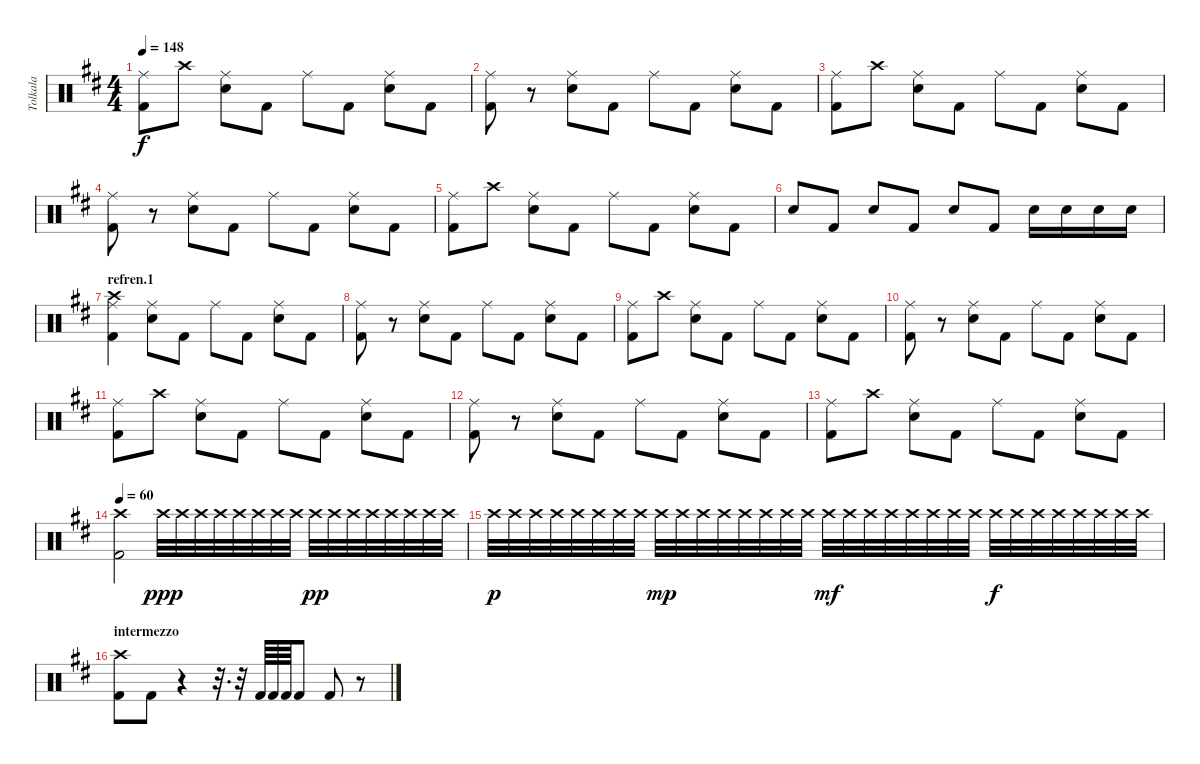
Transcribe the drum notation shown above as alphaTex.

\track ("Tolkala" "Tolkala") {instrument percussion}
\staff {score}
\articulation defaults
\ts (4 4)
\tempo 148
\clef neutral
\ks d
("Kick (hit) 2" "Ride (middle)").8{dy f} "Crash high (hit)".8 ("Snare (hit) 2" "Ride (middle)").8 "Kick (hit) 2".8 "Ride (middle)".8 "Kick (hit) 2".8 ("Snare (hit) 2" "Ride (middle)").8 "Kick (hit) 2".8 |
("Kick (hit) 2" "Ride (middle)").8 r.8 ("Snare (hit) 2" "Ride (middle)").8 "Kick (hit) 2".8 "Ride (middle)".8 "Kick (hit) 2".8 ("Snare (hit) 2" "Ride (middle)").8 "Kick (hit) 2".8 |
("Kick (hit) 2" "Ride (middle)").8 "Crash high (hit)".8 ("Snare (hit) 2" "Ride (middle)").8 "Kick (hit) 2".8 "Ride (middle)".8 "Kick (hit) 2".8 ("Snare (hit) 2" "Ride (middle)").8 "Kick (hit) 2".8 |
("Kick (hit) 2" "Ride (middle)").8 r.8 ("Snare (hit) 2" "Ride (middle)").8 "Kick (hit) 2".8 "Ride (middle)".8 "Kick (hit) 2".8 ("Snare (hit) 2" "Ride (middle)").8 "Kick (hit) 2".8 |
("Kick (hit) 2" "Ride (middle)").8 "Crash high (hit)".8 ("Snare (hit) 2" "Ride (middle)").8 "Kick (hit) 2".8 "Ride (middle)".8 "Kick (hit) 2".8 ("Snare (hit) 2" "Ride (middle)").8 "Kick (hit) 2".8 |
"Snare (hit) 2".8 "Kick (hit) 2".8 "Snare (hit) 2".8 "Kick (hit) 2".8 "Snare (hit) 2".8 "Kick (hit) 2".8 "Snare (hit) 2".16 "Snare (hit) 2".16 "Snare (hit) 2".16 "Snare (hit) 2".16 |
\section ("" "refren.1")
("Crash high (hit)" "Kick (hit) 2" "Ride (middle)").4 ("Snare (hit) 2" "Ride (middle)").8 "Kick (hit) 2".8 "Ride (middle)".8 "Kick (hit) 2".8 ("Snare (hit) 2" "Ride (middle)").8 "Kick (hit) 2".8 |
("Kick (hit) 2" "Ride (middle)").8 r.8 ("Snare (hit) 2" "Ride (middle)").8 "Kick (hit) 2".8 "Ride (middle)".8 "Kick (hit) 2".8 ("Snare (hit) 2" "Ride (middle)").8 "Kick (hit) 2".8 |
("Kick (hit) 2" "Ride (middle)").8 "Crash high (hit)".8 ("Snare (hit) 2" "Ride (middle)").8 "Kick (hit) 2".8 "Ride (middle)".8 "Kick (hit) 2".8 ("Snare (hit) 2" "Ride (middle)").8 "Kick (hit) 2".8 |
("Kick (hit) 2" "Ride (middle)").8 r.8 ("Snare (hit) 2" "Ride (middle)").8 "Kick (hit) 2".8 "Ride (middle)".8 "Kick (hit) 2".8 ("Snare (hit) 2" "Ride (middle)").8 "Kick (hit) 2".8 |
("Kick (hit) 2" "Ride (middle)").8 "Crash high (hit)".8 ("Snare (hit) 2" "Ride (middle)").8 "Kick (hit) 2".8 "Ride (middle)".8 "Kick (hit) 2".8 ("Snare (hit) 2" "Ride (middle)").8 "Kick (hit) 2".8 |
("Kick (hit) 2" "Ride (middle)").8 r.8 ("Snare (hit) 2" "Ride (middle)").8 "Kick (hit) 2".8 "Ride (middle)".8 "Kick (hit) 2".8 ("Snare (hit) 2" "Ride (middle)").8 "Kick (hit) 2".8 |
("Kick (hit) 2" "Ride (middle)").8 "Crash high (hit)".8 ("Snare (hit) 2" "Ride (middle)").8 "Kick (hit) 2".8 "Ride (middle)".8 "Kick (hit) 2".8 ("Snare (hit) 2" "Ride (middle)").8 "Kick (hit) 2".8 |
\tempo 60
("Crash high (hit)" "Kick (hit) 2").2 "Crash high (hit)".32{dy ppp} "Crash high (hit)".32 "Crash high (hit)".32 "Crash high (hit)".32 "Crash high (hit)".32 "Crash high (hit)".32 "Crash high (hit)".32 "Crash high (hit)".32 "Crash high (hit)".32{dy pp} "Crash high (hit)".32 "Crash high (hit)".32 "Crash high (hit)".32 "Crash high (hit)".32 "Crash high (hit)".32 "Crash high (hit)".32 "Crash high (hit)".32 |
"Crash high (hit)".32{dy p} "Crash high (hit)".32 "Crash high (hit)".32 "Crash high (hit)".32 "Crash high (hit)".32 "Crash high (hit)".32 "Crash high (hit)".32 "Crash high (hit)".32 "Crash high (hit)".32{dy mp} "Crash high (hit)".32 "Crash high (hit)".32 "Crash high (hit)".32 "Crash high (hit)".32 "Crash high (hit)".32 "Crash high (hit)".32 "Crash high (hit)".32 "Crash high (hit)".32{dy mf} "Crash high (hit)".32 "Crash high (hit)".32 "Crash high (hit)".32 "Crash high (hit)".32 "Crash high (hit)".32 "Crash high (hit)".32 "Crash high (hit)".32 "Crash high (hit)".32{dy f} "Crash high (hit)".32 "Crash high (hit)".32 "Crash high (hit)".32 "Crash high (hit)".32 "Crash high (hit)".32 "Crash high (hit)".32 "Crash high (hit)".32 |
\section ("" "intermezzo")
("Crash high (hit)" "Kick (hit) 2").8 "Kick (hit) 2".8 r.4 r.32{d} r.32 "Kick (hit) 2".64 "Kick (hit) 2".64 "Kick (hit) 2".64 "Kick (hit) 2".8 "Kick (hit) 2".8 r.8
